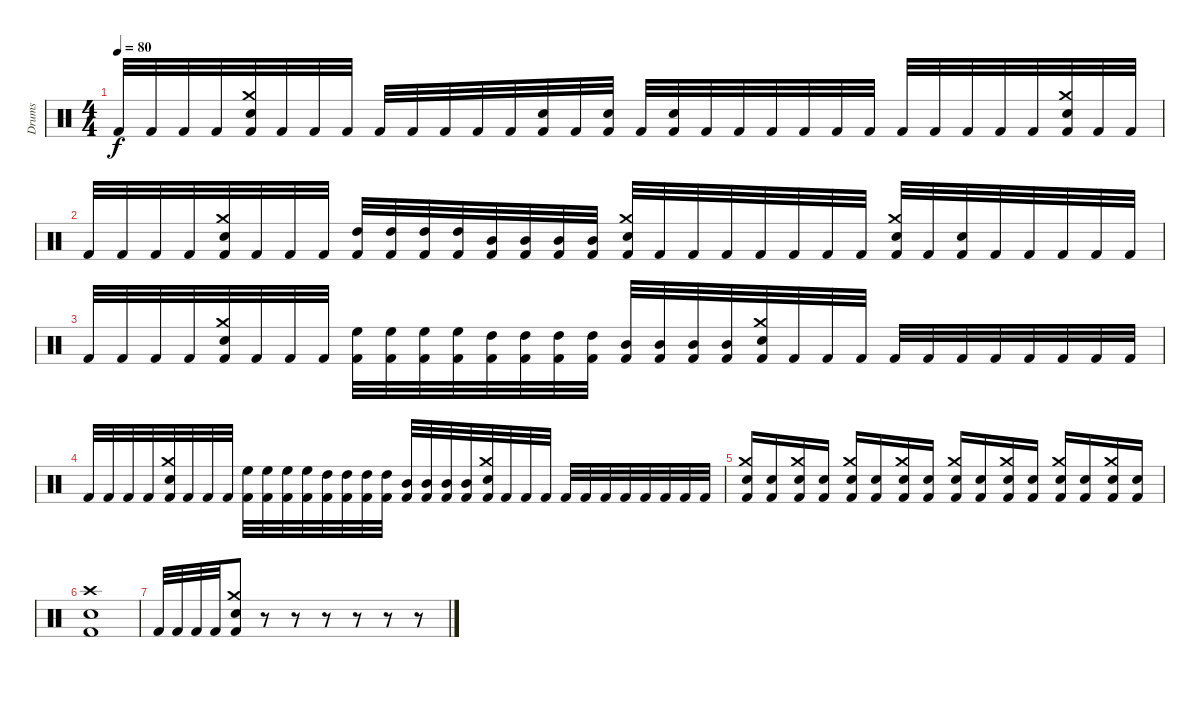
\track ("Drums" "Drums") {instrument percussion}
\staff {score}
\articulation defaults
\ts (4 4)
\tempo 80
\clef neutral
\ks c "Kick (hit) 2".32{dy f} "Kick (hit) 2".32 "Kick (hit) 2".32 "Kick (hit) 2".32
("Crash medium (hit)" "Electric Snare (hit)" "Kick (hit) 2").32 "Kick (hit) 2".32 "Kick (hit) 2".32 "Kick (hit) 2".32 "Kick (hit) 2".32 "Kick (hit) 2".32 "Kick (hit) 2".32 "Kick (hit) 2".32 "Kick (hit) 2".32 ("Electric Snare (hit)" "Kick (hit) 2").32 "Kick (hit) 2".32 ("Electric Snare (hit)" "Kick (hit) 2").32 "Kick (hit) 2".32 ("Electric Snare (hit)" "Kick (hit) 2").32 "Kick (hit) 2".32 "Kick (hit) 2".32 "Kick (hit) 2".32 "Kick (hit) 2".32 "Kick (hit) 2".32 "Kick (hit) 2".32 "Kick (hit) 2".32 "Kick (hit) 2".32 "Kick (hit) 2".32 "Kick (hit) 2".32 "Kick (hit) 2".32 ("Crash medium (hit)" "Electric Snare (hit)" "Kick (hit) 2").32 "Kick (hit) 2".32 "Kick (hit) 2".32 |
"Kick (hit) 2".32 "Kick (hit) 2".32 "Kick (hit) 2".32 "Kick (hit) 2".32 ("Crash medium (hit)" "Electric Snare (hit)" "Kick (hit) 2").32 "Kick (hit) 2".32 "Kick (hit) 2".32 "Kick (hit) 2".32 ("High Tom (hit)" "Kick (hit) 2").32 ("High Tom (hit)" "Kick (hit) 2").32 ("High Tom (hit)" "Kick (hit) 2").32 ("High Tom (hit)" "Kick (hit) 2").32 ("Mid Tom (hit)" "Kick (hit) 2").32 ("Mid Tom (hit)" "Kick (hit) 2").32 ("Mid Tom (hit)" "Kick (hit) 2").32 ("Mid Tom (hit)" "Kick (hit) 2").32 ("Crash medium (hit)" "Electric Snare (hit)" "Kick (hit) 2").32 "Kick (hit) 2".32 "Kick (hit) 2".32 "Kick (hit) 2".32 "Kick (hit) 2".32 "Kick (hit) 2".32 "Kick (hit) 2".32 "Kick (hit) 2".32 ("Crash medium (hit)" "Electric Snare (hit)" "Kick (hit) 2").32 "Kick (hit) 2".32 ("Electric Snare (hit)" "Kick (hit) 2").32 "Kick (hit) 2".32 "Kick (hit) 2".32 "Kick (hit) 2".32 "Kick (hit) 2".32 "Kick (hit) 2".32 |
"Kick (hit) 2".32 "Kick (hit) 2".32 "Kick (hit) 2".32 "Kick (hit) 2".32 ("Crash medium (hit)" "Electric Snare (hit)" "Kick (hit) 2").32 "Kick (hit) 2".32 "Kick (hit) 2".32 "Kick (hit) 2".32 ("High Floor Tom (hit)" "Kick (hit) 2").32 ("High Floor Tom (hit)" "Kick (hit) 2").32 ("High Floor Tom (hit)" "Kick (hit) 2").32 ("High Floor Tom (hit)" "Kick (hit) 2").32 ("High Tom (hit)" "Kick (hit) 2").32 ("High Tom (hit)" "Kick (hit) 2").32 ("High Tom (hit)" "Kick (hit) 2").32 ("High Tom (hit)" "Kick (hit) 2").32 ("Mid Tom (hit)" "Kick (hit) 2").32 ("Mid Tom (hit)" "Kick (hit) 2").32 ("Mid Tom (hit)" "Kick (hit) 2").32 ("Mid Tom (hit)" "Kick (hit) 2").32 ("Crash medium (hit)" "Electric Snare (hit)" "Kick (hit) 2").32 "Kick (hit) 2".32 "Kick (hit) 2".32 "Kick (hit) 2".32 "Kick (hit) 2".32 "Kick (hit) 2".32 "Kick (hit) 2".32 "Kick (hit) 2".32 "Kick (hit) 2".32 "Kick (hit) 2".32 "Kick (hit) 2".32 "Kick (hit) 2".32 |
"Kick (hit) 2".32 "Kick (hit) 2".32 "Kick (hit) 2".32 "Kick (hit) 2".32 ("Crash medium (hit)" "Electric Snare (hit)" "Kick (hit) 2").32 "Kick (hit) 2".32 "Kick (hit) 2".32 "Kick (hit) 2".32 ("High Floor Tom (hit)" "Kick (hit) 2").32 ("High Floor Tom (hit)" "Kick (hit) 2").32 ("High Floor Tom (hit)" "Kick (hit) 2").32 ("High Floor Tom (hit)" "Kick (hit) 2").32 ("High Tom (hit)" "Kick (hit) 2").32 ("High Tom (hit)" "Kick (hit) 2").32 ("High Tom (hit)" "Kick (hit) 2").32 ("High Tom (hit)" "Kick (hit) 2").32 ("Mid Tom (hit)" "Kick (hit) 2").32 ("Mid Tom (hit)" "Kick (hit) 2").32 ("Mid Tom (hit)" "Kick (hit) 2").32 ("Mid Tom (hit)" "Kick (hit) 2").32 ("Crash medium (hit)" "Electric Snare (hit)" "Kick (hit) 2").32 "Kick (hit) 2".32 "Kick (hit) 2".32 "Kick (hit) 2".32 "Kick (hit) 2".32 "Kick (hit) 2".32 "Kick (hit) 2".32 "Kick (hit) 2".32 "Kick (hit) 2".32 "Kick (hit) 2".32 "Kick (hit) 2".32 "Kick (hit) 2".32 |
("Crash medium (hit)" "Electric Snare (hit)" "Kick (hit) 2").16 ("Electric Snare (hit)" "Kick (hit) 2").16 ("Crash medium (hit)" "Electric Snare (hit)" "Kick (hit) 2").16 ("Electric Snare (hit)" "Kick (hit) 2").16 ("Crash medium (hit)" "Electric Snare (hit)" "Kick (hit) 2").16 ("Electric Snare (hit)" "Kick (hit) 2").16 ("Crash medium (hit)" "Electric Snare (hit)" "Kick (hit) 2").16 ("Electric Snare (hit)" "Kick (hit) 2").16 ("Crash medium (hit)" "Electric Snare (hit)" "Kick (hit) 2").16 ("Electric Snare (hit)" "Kick (hit) 2").16 ("Crash medium (hit)" "Electric Snare (hit)" "Kick (hit) 2").16 ("Electric Snare (hit)" "Kick (hit) 2").16 ("Crash medium (hit)" "Electric Snare (hit)" "Kick (hit) 2").16 ("Electric Snare (hit)" "Kick (hit) 2").16 ("Crash medium (hit)" "Electric Snare (hit)" "Kick (hit) 2").16 ("Electric Snare (hit)" "Kick (hit) 2").16 |
("Crash high (hit)" "Electric Snare (hit)" "Kick (hit) 2").1 |
"Kick (hit) 2".32 "Kick (hit) 2".32 "Kick (hit) 2".32 "Kick (hit) 2".32 ("Crash medium (hit)" "Electric Snare (hit)" "Kick (hit) 2").8 r.8 r.8 r.8 r.8 r.8 r.8
